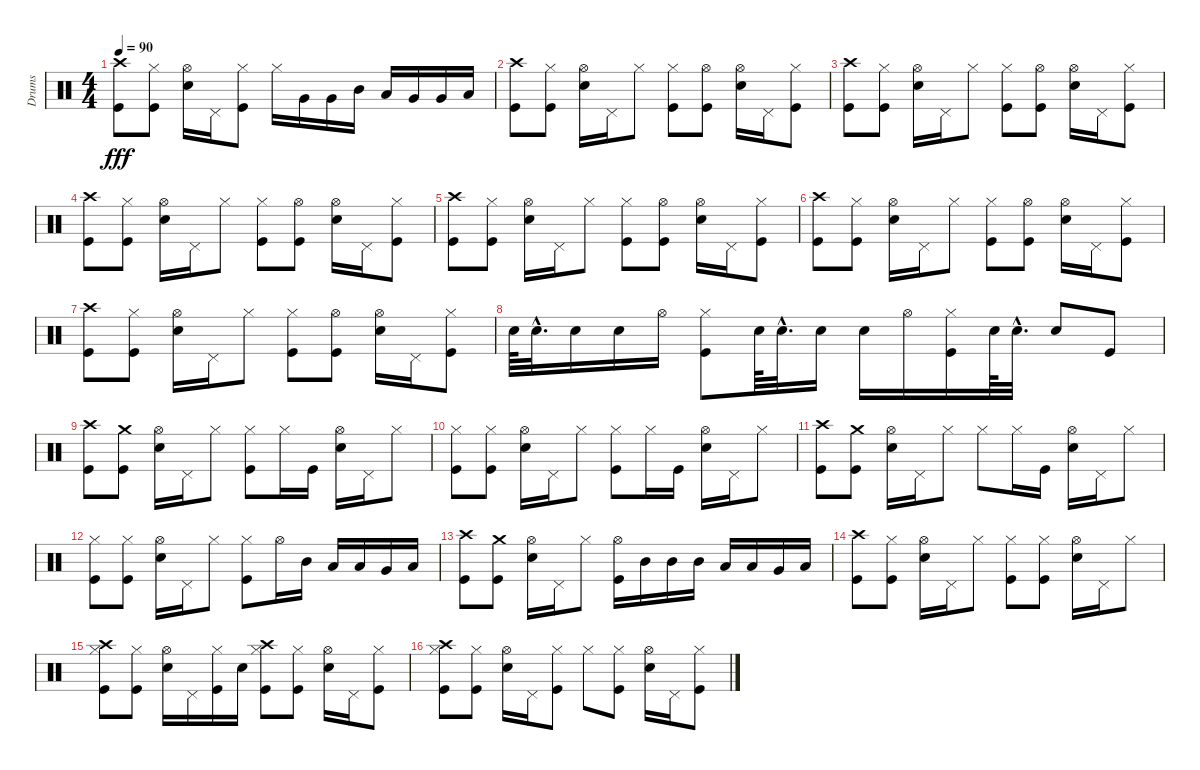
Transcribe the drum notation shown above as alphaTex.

\track ("Drums" "Drums") {instrument percussion}
\staff {score}
\articulation defaults
\ts (4 4)
\tempo 90
\clef neutral
\ks c
("Crash high (hit)" "Kick (hit)").8{dy fff} ("Hi-Hat (closed)" "Kick (hit)").8 ("Hi-Hat (open)" "Snare (hit) 2").16 "Pedal Hi-Hat (hit)".16 ("Hi-Hat (closed)" "Kick (hit)").8 "Hi-Hat (closed)".16 "Very Low Tom (hit)".16 "Very Low Tom (hit)".16 "Mid Tom (hit)".16 "Low Tom (hit)".16 "Very Low Tom (hit)".16 "Very Low Tom (hit)".16 "Low Floor Tom (hit)".16 |
("Crash high (hit)" "Kick (hit)").8 ("Hi-Hat (closed)" "Kick (hit)").8 ("Hi-Hat (open)" "Snare (hit) 2").16 "Pedal Hi-Hat (hit)".16 "Hi-Hat (closed)".8 ("Hi-Hat (closed)" "Kick (hit)").8 ("Hi-Hat (open)" "Kick (hit)").8 ("Hi-Hat (open)" "Snare (hit) 2").16 "Pedal Hi-Hat (hit)".16 ("Hi-Hat (closed)" "Kick (hit)").8 |
("Crash high (hit)" "Kick (hit)").8 ("Hi-Hat (closed)" "Kick (hit)").8 ("Hi-Hat (open)" "Snare (hit) 2").16 "Pedal Hi-Hat (hit)".16 "Hi-Hat (closed)".8 ("Hi-Hat (closed)" "Kick (hit)").8 ("Hi-Hat (open)" "Kick (hit)").8 ("Hi-Hat (open)" "Snare (hit) 2").16 "Pedal Hi-Hat (hit)".16 ("Hi-Hat (closed)" "Kick (hit)").8 |
("Crash high (hit)" "Kick (hit)").8 ("Hi-Hat (closed)" "Kick (hit)").8 ("Hi-Hat (open)" "Snare (hit) 2").16 "Pedal Hi-Hat (hit)".16 "Hi-Hat (closed)".8 ("Hi-Hat (closed)" "Kick (hit)").8 ("Hi-Hat (open)" "Kick (hit)").8 ("Hi-Hat (open)" "Snare (hit) 2").16 "Pedal Hi-Hat (hit)".16 ("Hi-Hat (closed)" "Kick (hit)").8 |
("Crash high (hit)" "Kick (hit)").8 ("Hi-Hat (closed)" "Kick (hit)").8 ("Hi-Hat (open)" "Snare (hit) 2").16 "Pedal Hi-Hat (hit)".16 "Hi-Hat (closed)".8 ("Hi-Hat (closed)" "Kick (hit)").8 ("Hi-Hat (open)" "Kick (hit)").8 ("Hi-Hat (open)" "Snare (hit) 2").16 "Pedal Hi-Hat (hit)".16 ("Hi-Hat (closed)" "Kick (hit)").8 |
("Crash high (hit)" "Kick (hit)").8 ("Hi-Hat (closed)" "Kick (hit)").8 ("Hi-Hat (open)" "Snare (hit) 2").16 "Pedal Hi-Hat (hit)".16 "Hi-Hat (closed)".8 ("Hi-Hat (closed)" "Kick (hit)").8 ("Hi-Hat (open)" "Kick (hit)").8 ("Hi-Hat (open)" "Snare (hit) 2").16 "Pedal Hi-Hat (hit)".16 ("Hi-Hat (closed)" "Kick (hit)").8 |
("Crash high (hit)" "Kick (hit)").8 ("Hi-Hat (closed)" "Kick (hit)").8 ("Hi-Hat (open)" "Snare (hit) 2").16 "Pedal Hi-Hat (hit)".16 "Hi-Hat (closed)".8 ("Hi-Hat (closed)" "Kick (hit)").8 ("Hi-Hat (open)" "Kick (hit)").8 ("Hi-Hat (open)" "Snare (hit) 2").16 "Pedal Hi-Hat (hit)".16 ("Hi-Hat (closed)" "Kick (hit)").8 |
"Snare (hit) 2".64 "Snare (hit) 2"{hac}.32{d} "Snare (hit) 2".16 "Snare (hit) 2".16 "Hi-Hat (open)".16 ("Hi-Hat (closed)" "Kick (hit)").8 "Snare (hit) 2".64 "Snare (hit) 2"{hac}.32{d} "Snare (hit) 2".16 "Snare (hit) 2".16 "Hi-Hat (open)".16 ("Hi-Hat (closed)" "Kick (hit)").16 "Snare (hit) 2".64 "Snare (hit) 2"{hac}.32{d} "Snare (hit) 2".8 "Kick (hit)".8 |
("Crash high (hit)" "Kick (hit)").8 ("Crash medium (hit)" "Kick (hit)").8 ("Hi-Hat (open)" "Snare (hit) 2").16 "Pedal Hi-Hat (hit)".16 "Hi-Hat (closed)".8 ("Hi-Hat (closed)" "Kick (hit)").8 "Hi-Hat (closed)".16 "Kick (hit)".16 ("Hi-Hat (open)" "Snare (hit) 2").16 "Pedal Hi-Hat (hit)".16 "Hi-Hat (closed)".8 |
("Hi-Hat (closed)" "Kick (hit)").8 ("Hi-Hat (closed)" "Kick (hit)").8 ("Hi-Hat (open)" "Snare (hit) 2").16 "Pedal Hi-Hat (hit)".16 "Hi-Hat (closed)".8 ("Hi-Hat (closed)" "Kick (hit)").8 "Hi-Hat (closed)".16 "Kick (hit)".16 ("Hi-Hat (open)" "Snare (hit) 2").16 "Pedal Hi-Hat (hit)".16 "Hi-Hat (closed)".8 |
("Crash high (hit)" "Kick (hit)").8 ("Crash medium (hit)" "Kick (hit)").8 ("Hi-Hat (open)" "Snare (hit) 2").16 "Pedal Hi-Hat (hit)".16 "Hi-Hat (closed)".8 "Hi-Hat (closed)".8 "Hi-Hat (closed)".16 "Kick (hit)".16 ("Hi-Hat (open)" "Snare (hit) 2").16 "Pedal Hi-Hat (hit)".16 "Hi-Hat (closed)".8 |
("Hi-Hat (closed)" "Kick (hit)").8 ("Hi-Hat (closed)" "Kick (hit)").8 ("Hi-Hat (open)" "Snare (hit) 2").16 "Pedal Hi-Hat (hit)".16 "Hi-Hat (closed)".8 ("Hi-Hat (closed)" "Kick (hit)").8 "Hi-Hat (open)".16 "Mid Tom (hit)".16 "Low Tom (hit)".16 "Low Tom (hit)".16 "Very Low Tom (hit)".16 "Low Floor Tom (hit)".16 |
("Crash high (hit)" "Kick (hit)").8 ("Crash medium (hit)" "Kick (hit)").8 ("Hi-Hat (open)" "Snare (hit) 2").16 "Pedal Hi-Hat (hit)".16 "Hi-Hat (closed)".8 ("Hi-Hat (open)" "Kick (hit)").16 "Mid Tom (hit)".16 "Mid Tom (hit)".16 "Mid Tom (hit)".16 "Low Tom (hit)".16 "Low Tom (hit)".16 "Very Low Tom (hit)".16 "Low Floor Tom (hit)".16 |
("Crash high (hit)" "Kick (hit)").8 ("Hi-Hat (closed)" "Kick (hit)").8 ("Hi-Hat (open)" "Snare (hit) 2").16 "Pedal Hi-Hat (hit)".16 "Hi-Hat (closed)".8 ("Hi-Hat (closed)" "Kick (hit)").8 ("Hi-Hat (closed)" "Kick (hit)").8 ("Hi-Hat (open)" "Snare (hit) 2").16 "Pedal Hi-Hat (hit)".16 "Hi-Hat (closed)".8 |
("Hi-Hat (closed)" "Crash high (hit)" "Kick (hit)").8 ("Hi-Hat (closed)" "Kick (hit)").8 ("Hi-Hat (open)" "Snare (hit) 2").16 "Pedal Hi-Hat (hit)".16 ("Hi-Hat (closed)" "Kick (hit)").16 "Snare (hit) 2".16 ("Hi-Hat (closed)" "Crash high (hit)" "Kick (hit)").8 ("Hi-Hat (closed)" "Kick (hit)").8 ("Hi-Hat (open)" "Snare (hit) 2").16 "Pedal Hi-Hat (hit)".16 ("Hi-Hat (closed)" "Kick (hit)").8 |
("Hi-Hat (closed)" "Crash high (hit)" "Kick (hit)").8 ("Hi-Hat (closed)" "Kick (hit)").8 ("Hi-Hat (open)" "Snare (hit) 2").16 "Pedal Hi-Hat (hit)".16 ("Hi-Hat (closed)" "Kick (hit)").8 "Hi-Hat (closed)".8 ("Hi-Hat (closed)" "Kick (hit)").8 ("Hi-Hat (open)" "Snare (hit) 2").16 "Pedal Hi-Hat (hit)".16 ("Hi-Hat (closed)" "Kick (hit)").8
